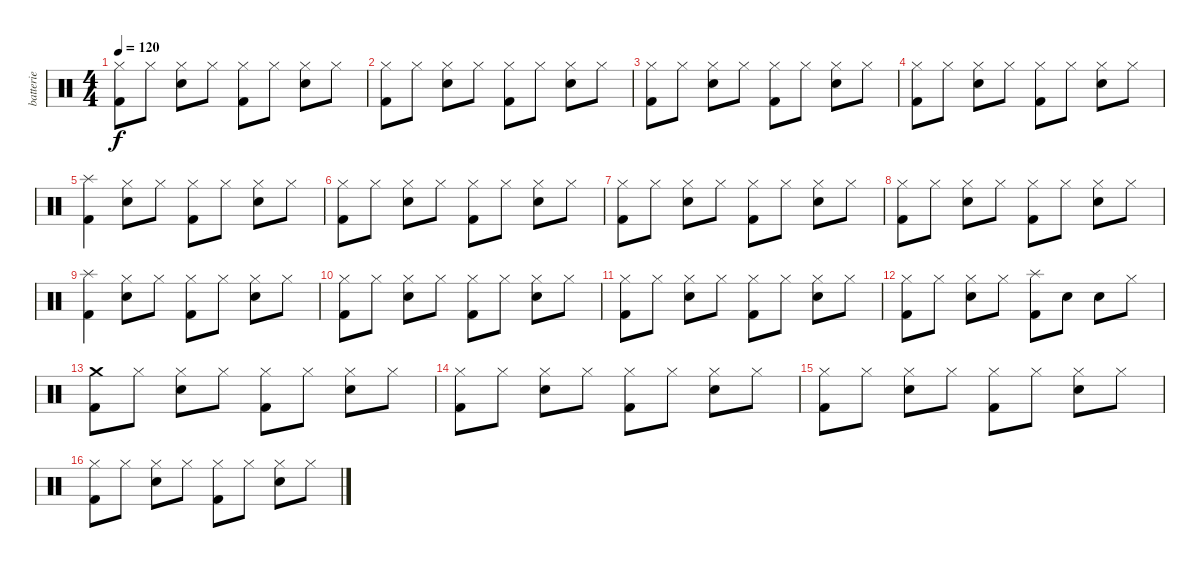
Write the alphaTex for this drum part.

\track ("batterie" "batterie") {instrument percussion}
\staff {score}
\articulation defaults
\ts (4 4)
\tempo 120
\clef neutral
\ks c
("Kick (hit) 2" "Hi-Hat (closed)").8{dy f} "Hi-Hat (closed)".8 ("Snare (hit) 2" "Hi-Hat (closed)").8 "Hi-Hat (closed)".8 ("Kick (hit) 2" "Hi-Hat (closed)").8 "Hi-Hat (closed)".8 ("Snare (hit) 2" "Hi-Hat (closed)").8 "Hi-Hat (closed)".8 |
("Kick (hit) 2" "Hi-Hat (closed)").8 "Hi-Hat (closed)".8 ("Snare (hit) 2" "Hi-Hat (closed)").8 "Hi-Hat (closed)".8 ("Kick (hit) 2" "Hi-Hat (closed)").8 "Hi-Hat (closed)".8 ("Snare (hit) 2" "Hi-Hat (closed)").8 "Hi-Hat (closed)".8 |
("Kick (hit) 2" "Hi-Hat (closed)").8 "Hi-Hat (closed)".8 ("Snare (hit) 2" "Hi-Hat (closed)").8 "Hi-Hat (closed)".8 ("Kick (hit) 2" "Hi-Hat (closed)").8 "Hi-Hat (closed)".8 ("Snare (hit) 2" "Hi-Hat (closed)").8 "Hi-Hat (closed)".8 |
("Kick (hit) 2" "Hi-Hat (closed)").8 "Hi-Hat (closed)".8 ("Snare (hit) 2" "Hi-Hat (closed)").8 "Hi-Hat (closed)".8 ("Kick (hit) 2" "Hi-Hat (closed)").8 "Hi-Hat (closed)".8 ("Snare (hit) 2" "Hi-Hat (closed)").8 "Hi-Hat (closed)".8 |
("Kick (hit) 2" "Splash (hit)").4 ("Snare (hit) 2" "Hi-Hat (closed)").8 "Hi-Hat (closed)".8 ("Kick (hit) 2" "Hi-Hat (closed)").8 "Hi-Hat (closed)".8 ("Snare (hit) 2" "Hi-Hat (closed)").8 "Hi-Hat (closed)".8 |
("Kick (hit) 2" "Hi-Hat (closed)").8 "Hi-Hat (closed)".8 ("Snare (hit) 2" "Hi-Hat (closed)").8 "Hi-Hat (closed)".8 ("Kick (hit) 2" "Hi-Hat (closed)").8 "Hi-Hat (closed)".8 ("Snare (hit) 2" "Hi-Hat (closed)").8 "Hi-Hat (closed)".8 |
("Kick (hit) 2" "Hi-Hat (closed)").8 "Hi-Hat (closed)".8 ("Snare (hit) 2" "Hi-Hat (closed)").8 "Hi-Hat (closed)".8 ("Kick (hit) 2" "Hi-Hat (closed)").8 "Hi-Hat (closed)".8 ("Snare (hit) 2" "Hi-Hat (closed)").8 "Hi-Hat (closed)".8 |
("Kick (hit) 2" "Hi-Hat (closed)").8 "Hi-Hat (closed)".8 ("Snare (hit) 2" "Hi-Hat (closed)").8 "Hi-Hat (closed)".8 ("Kick (hit) 2" "Hi-Hat (closed)").8 "Hi-Hat (closed)".8 ("Snare (hit) 2" "Hi-Hat (closed)").8 "Hi-Hat (closed)".8 |
("Kick (hit) 2" "Splash (hit)").4 ("Snare (hit) 2" "Hi-Hat (closed)").8 "Hi-Hat (closed)".8 ("Kick (hit) 2" "Hi-Hat (closed)").8 "Hi-Hat (closed)".8 ("Snare (hit) 2" "Hi-Hat (closed)").8 "Hi-Hat (closed)".8 |
("Kick (hit) 2" "Hi-Hat (closed)").8 "Hi-Hat (closed)".8 ("Snare (hit) 2" "Hi-Hat (closed)").8 "Hi-Hat (closed)".8 ("Kick (hit) 2" "Hi-Hat (closed)").8 "Hi-Hat (closed)".8 ("Snare (hit) 2" "Hi-Hat (closed)").8 "Hi-Hat (closed)".8 |
("Kick (hit) 2" "Hi-Hat (closed)").8 "Hi-Hat (closed)".8 ("Snare (hit) 2" "Hi-Hat (closed)").8 "Hi-Hat (closed)".8 ("Kick (hit) 2" "Hi-Hat (closed)").8 "Hi-Hat (closed)".8 ("Snare (hit) 2" "Hi-Hat (closed)").8 "Hi-Hat (closed)".8 |
("Kick (hit) 2" "Hi-Hat (closed)").8 "Hi-Hat (closed)".8 ("Snare (hit) 2" "Hi-Hat (closed)").8 "Hi-Hat (closed)".8 ("Kick (hit) 2" "Splash (hit)").8 "Snare (hit) 2".8 "Snare (hit) 2".8 "Hi-Hat (closed)".8 |
("Kick (hit) 2" "Crash medium (hit)").8 "Hi-Hat (closed)".8 ("Snare (hit) 2" "Hi-Hat (closed)").8 "Hi-Hat (closed)".8 ("Kick (hit) 2" "Hi-Hat (closed)").8 "Hi-Hat (closed)".8 ("Snare (hit) 2" "Hi-Hat (closed)").8 "Hi-Hat (closed)".8 |
("Kick (hit) 2" "Hi-Hat (closed)").8 "Hi-Hat (closed)".8 ("Snare (hit) 2" "Hi-Hat (closed)").8 "Hi-Hat (closed)".8 ("Kick (hit) 2" "Hi-Hat (closed)").8 "Hi-Hat (closed)".8 ("Snare (hit) 2" "Hi-Hat (closed)").8 "Hi-Hat (closed)".8 |
("Kick (hit) 2" "Hi-Hat (closed)").8 "Hi-Hat (closed)".8 ("Snare (hit) 2" "Hi-Hat (closed)").8 "Hi-Hat (closed)".8 ("Kick (hit) 2" "Hi-Hat (closed)").8 "Hi-Hat (closed)".8 ("Snare (hit) 2" "Hi-Hat (closed)").8 "Hi-Hat (closed)".8 |
("Kick (hit) 2" "Hi-Hat (closed)").8 "Hi-Hat (closed)".8 ("Snare (hit) 2" "Hi-Hat (closed)").8 "Hi-Hat (closed)".8 ("Kick (hit) 2" "Hi-Hat (closed)").8 "Hi-Hat (closed)".8 ("Snare (hit) 2" "Hi-Hat (closed)").8 "Hi-Hat (closed)".8
